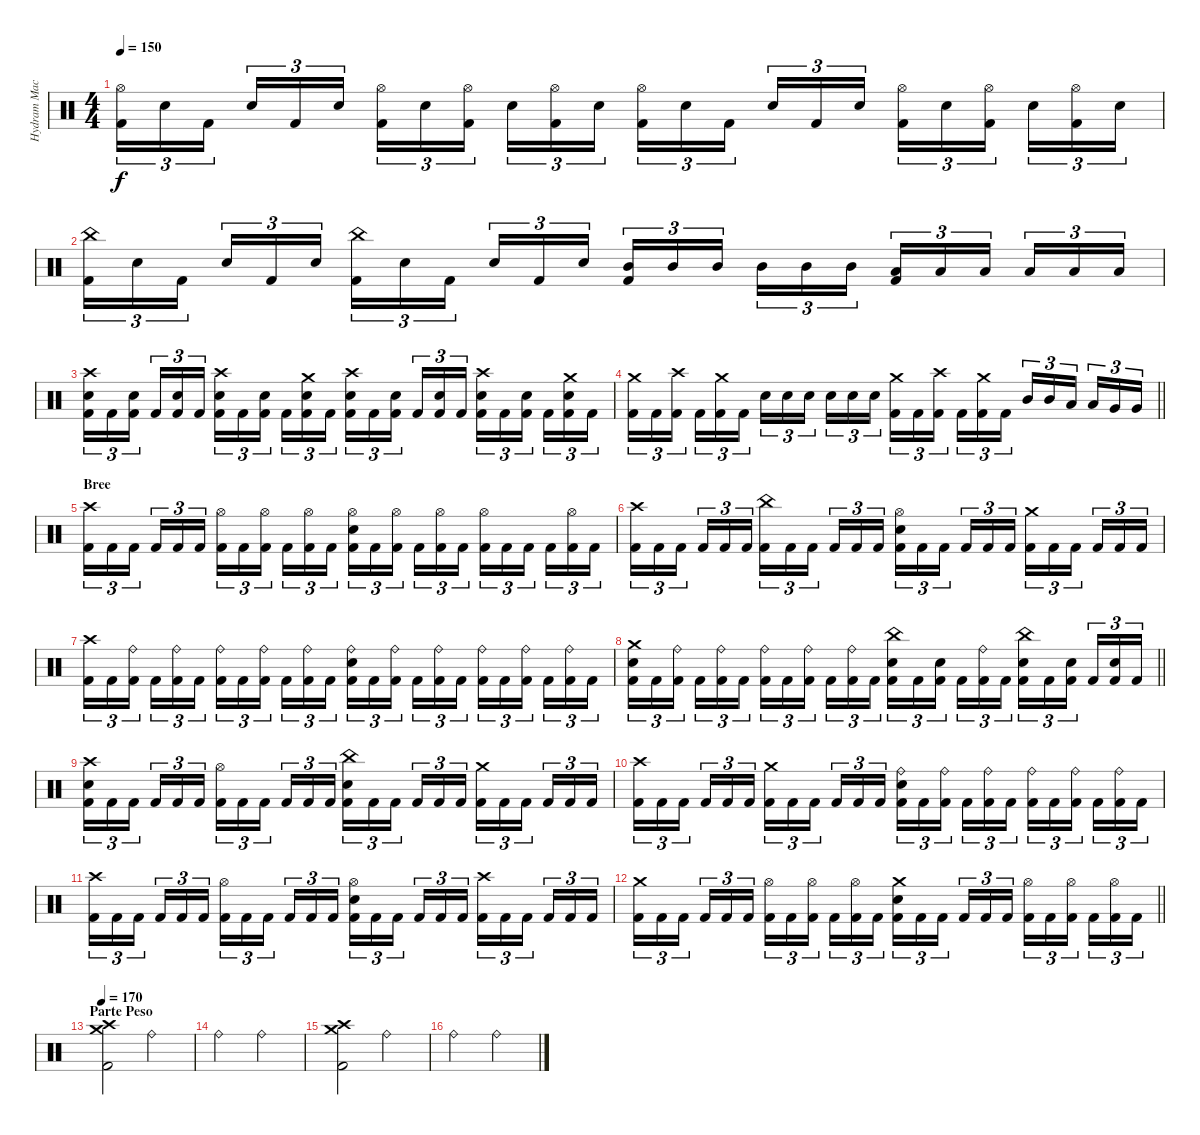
\track ("Hydram Machine" "Hydram Mac") {instrument percussion}
\staff {score}
\articulation defaults
\ts (4 4)
\tempo 150
\clef neutral
\ks c
("Hi-Hat (open)" "Kick (hit) 2").16{tu (3 2) dy f} "Electric Snare (hit)".16{tu (3 2)} "Kick (hit) 2".16{tu (3 2) beam splitsecondary} "Electric Snare (hit)".16{tu (3 2)} "Kick (hit) 2".16{tu (3 2)} "Electric Snare (hit)".16{tu (3 2)} ("Hi-Hat (open)" "Kick (hit) 2").16{tu (3 2)} "Electric Snare (hit)".16{tu (3 2)} ("Hi-Hat (open)" "Kick (hit) 2").16{tu (3 2) beam splitsecondary} "Electric Snare (hit)".16{tu (3 2)} ("Hi-Hat (open)" "Kick (hit) 2").16{tu (3 2)} "Electric Snare (hit)".16{tu (3 2)} ("Hi-Hat (open)" "Kick (hit) 2").16{tu (3 2)} "Electric Snare (hit)".16{tu (3 2)} "Kick (hit) 2".16{tu (3 2) beam splitsecondary} "Electric Snare (hit)".16{tu (3 2)} "Kick (hit) 2".16{tu (3 2)} "Electric Snare (hit)".16{tu (3 2)} ("Hi-Hat (open)" "Kick (hit) 2").16{tu (3 2)} "Electric Snare (hit)".16{tu (3 2)} ("Hi-Hat (open)" "Kick (hit) 2").16{tu (3 2) beam splitsecondary} "Electric Snare (hit)".16{tu (3 2)} ("Hi-Hat (open)" "Kick (hit) 2").16{tu (3 2)} "Electric Snare (hit)".16{tu (3 2)} |
("China (hit)" "Kick (hit) 2").16{tu (3 2)} "Electric Snare (hit)".16{tu (3 2)} "Kick (hit) 2".16{tu (3 2) beam splitsecondary} "Electric Snare (hit)".16{tu (3 2)} "Kick (hit) 2".16{tu (3 2)} "Electric Snare (hit)".16{tu (3 2)} ("China (hit)" "Kick (hit) 2").16{tu (3 2)} "Electric Snare (hit)".16{tu (3 2)} "Kick (hit) 2".16{tu (3 2) beam splitsecondary} "Electric Snare (hit)".16{tu (3 2)} "Kick (hit) 2".16{tu (3 2)} "Electric Snare (hit)".16{tu (3 2)} ("Mid Tom (hit)" "Kick (hit) 2").16{tu (3 2)} "Mid Tom (hit)".16{tu (3 2)} "Mid Tom (hit)".16{tu (3 2) beam splitsecondary} "Mid Tom (hit)".16{tu (3 2)} "Mid Tom (hit)".16{tu (3 2)} "Mid Tom (hit)".16{tu (3 2)} ("Low Tom (hit)" "Kick (hit) 2").16{tu (3 2)} "Low Tom (hit)".16{tu (3 2)} "Low Tom (hit)".16{tu (3 2) beam splitsecondary} "Low Tom (hit)".16{tu (3 2)} "Low Tom (hit)".16{tu (3 2)} "Low Tom (hit)".16{tu (3 2)} |
("Crash high (hit)" "Electric Snare (hit)" "Kick (hit) 2").16{tu (3 2)} "Kick (hit) 2".16{tu (3 2)} ("Electric Snare (hit)" "Kick (hit) 2").16{tu (3 2) beam splitsecondary} "Kick (hit) 2".16{tu (3 2)} ("Electric Snare (hit)" "Kick (hit) 2").16{tu (3 2)} "Kick (hit) 2".16{tu (3 2)} ("Crash high (hit)" "Electric Snare (hit)" "Kick (hit) 2").16{tu (3 2)} "Kick (hit) 2".16{tu (3 2)} ("Electric Snare (hit)" "Kick (hit) 2").16{tu (3 2) beam splitsecondary} "Kick (hit) 2".16{tu (3 2)} ("Crash medium (hit)" "Electric Snare (hit)" "Kick (hit) 2").16{tu (3 2)} "Kick (hit) 2".16{tu (3 2)} ("Crash high (hit)" "Electric Snare (hit)" "Kick (hit) 2").16{tu (3 2)} "Kick (hit) 2".16{tu (3 2)} ("Electric Snare (hit)" "Kick (hit) 2").16{tu (3 2) beam splitsecondary} "Kick (hit) 2".16{tu (3 2)} ("Electric Snare (hit)" "Kick (hit) 2").16{tu (3 2)} "Kick (hit) 2".16{tu (3 2)} ("Crash high (hit)" "Electric Snare (hit)" "Kick (hit) 2").16{tu (3 2)} "Kick (hit) 2".16{tu (3 2)} ("Electric Snare (hit)" "Kick (hit) 2").16{tu (3 2) beam splitsecondary} "Kick (hit) 2".16{tu (3 2)} ("Crash medium (hit)" "Electric Snare (hit)" "Kick (hit) 2").16{tu (3 2)} "Kick (hit) 2".16{tu (3 2)} |
\barLineRight lightlight
("Crash medium (hit)" "Kick (hit) 2").16{tu (3 2)} "Kick (hit) 2".16{tu (3 2)} ("Crash high (hit)" "Kick (hit) 2").16{tu (3 2) beam splitsecondary} "Kick (hit) 2".16{tu (3 2)} ("Crash medium (hit)" "Kick (hit) 2").16{tu (3 2)} "Kick (hit) 2".16{tu (3 2)} "Electric Snare (hit)".16{tu (3 2)} "Electric Snare (hit)".16{tu (3 2)} "Electric Snare (hit)".16{tu (3 2) beam splitsecondary} "Electric Snare (hit)".16{tu (3 2)} "Electric Snare (hit)".16{tu (3 2)} "Electric Snare (hit)".16{tu (3 2)} ("Crash medium (hit)" "Kick (hit) 2").16{tu (3 2)} "Kick (hit) 2".16{tu (3 2)} ("Crash high (hit)" "Kick (hit) 2").16{tu (3 2) beam splitsecondary} "Kick (hit) 2".16{tu (3 2)} ("Crash medium (hit)" "Kick (hit) 2").16{tu (3 2)} "Kick (hit) 2".16{tu (3 2)} "Mid Tom (hit)".16{tu (3 2)} "Mid Tom (hit)".16{tu (3 2)} "Low Tom (hit)".16{tu (3 2) beam splitsecondary} "Low Tom (hit)".16{tu (3 2)} "Very Low Tom (hit)".16{tu (3 2)} "Very Low Tom (hit)".16{tu (3 2)} |
\section ("" "Bree")
("Crash high (hit)" "Kick (hit) 2").16{tu (3 2)} "Kick (hit) 2".16{tu (3 2)} "Kick (hit) 2".16{tu (3 2) beam splitsecondary} "Kick (hit) 2".16{tu (3 2)} "Kick (hit) 2".16{tu (3 2)} "Kick (hit) 2".16{tu (3 2)} ("Hi-Hat (open)" "Kick (hit) 2").16{tu (3 2)} "Kick (hit) 2".16{tu (3 2)} ("Hi-Hat (open)" "Kick (hit) 2").16{tu (3 2) beam splitsecondary} "Kick (hit) 2".16{tu (3 2)} ("Hi-Hat (open)" "Kick (hit) 2").16{tu (3 2)} "Kick (hit) 2".16{tu (3 2)} ("Hi-Hat (open)" "Electric Snare (hit)" "Kick (hit) 2").16{tu (3 2)} "Kick (hit) 2".16{tu (3 2)} ("Hi-Hat (open)" "Kick (hit) 2").16{tu (3 2) beam splitsecondary} "Kick (hit) 2".16{tu (3 2)} ("Hi-Hat (open)" "Kick (hit) 2").16{tu (3 2)} "Kick (hit) 2".16{tu (3 2)} ("Hi-Hat (open)" "Kick (hit) 2").16{tu (3 2)} "Kick (hit) 2".16{tu (3 2)} "Kick (hit) 2".16{tu (3 2) beam splitsecondary} "Kick (hit) 2".16{tu (3 2)} ("Hi-Hat (open)" "Kick (hit) 2").16{tu (3 2)} "Kick (hit) 2".16{tu (3 2)} |
("Crash high (hit)" "Kick (hit) 2").16{tu (3 2)} "Kick (hit) 2".16{tu (3 2)} "Kick (hit) 2".16{tu (3 2) beam splitsecondary} "Kick (hit) 2".16{tu (3 2)} "Kick (hit) 2".16{tu (3 2)} "Kick (hit) 2".16{tu (3 2)} ("China (hit)" "Kick (hit) 2").16{tu (3 2)} "Kick (hit) 2".16{tu (3 2)} "Kick (hit) 2".16{tu (3 2) beam splitsecondary} "Kick (hit) 2".16{tu (3 2)} "Kick (hit) 2".16{tu (3 2)} "Kick (hit) 2".16{tu (3 2)} ("Hi-Hat (open)" "Electric Snare (hit)" "Kick (hit) 2").16{tu (3 2)} "Kick (hit) 2".16{tu (3 2)} "Kick (hit) 2".16{tu (3 2) beam splitsecondary} "Kick (hit) 2".16{tu (3 2)} "Kick (hit) 2".16{tu (3 2)} "Kick (hit) 2".16{tu (3 2)} ("Crash medium (hit)" "Kick (hit) 2").16{tu (3 2)} "Kick (hit) 2".16{tu (3 2)} "Kick (hit) 2".16{tu (3 2) beam splitsecondary} "Kick (hit) 2".16{tu (3 2)} "Kick (hit) 2".16{tu (3 2)} "Kick (hit) 2".16{tu (3 2)} |
("Crash high (hit)" "Kick (hit) 2").16{tu (3 2)} "Kick (hit) 2".16{tu (3 2)} ("Ride (bell)" "Kick (hit) 2").16{tu (3 2) beam splitsecondary} "Kick (hit) 2".16{tu (3 2)} ("Ride (bell)" "Kick (hit) 2").16{tu (3 2)} "Kick (hit) 2".16{tu (3 2)} ("Ride (bell)" "Kick (hit) 2").16{tu (3 2)} "Kick (hit) 2".16{tu (3 2)} ("Ride (bell)" "Kick (hit) 2").16{tu (3 2) beam splitsecondary} "Kick (hit) 2".16{tu (3 2)} ("Ride (bell)" "Kick (hit) 2").16{tu (3 2)} "Kick (hit) 2".16{tu (3 2)} ("Ride (bell)" "Electric Snare (hit)" "Kick (hit) 2").16{tu (3 2)} "Kick (hit) 2".16{tu (3 2)} ("Ride (bell)" "Kick (hit) 2").16{tu (3 2) beam splitsecondary} "Kick (hit) 2".16{tu (3 2)} ("Ride (bell)" "Kick (hit) 2").16{tu (3 2)} "Kick (hit) 2".16{tu (3 2)} ("Ride (bell)" "Kick (hit) 2").16{tu (3 2)} "Kick (hit) 2".16{tu (3 2)} ("Ride (bell)" "Kick (hit) 2").16{tu (3 2) beam splitsecondary} "Kick (hit) 2".16{tu (3 2)} ("Ride (bell)" "Kick (hit) 2").16{tu (3 2)} "Kick (hit) 2".16{tu (3 2)} |
\barLineRight lightlight
("Crash medium (hit)" "Electric Snare (hit)" "Kick (hit) 2").16{tu (3 2)} "Kick (hit) 2".16{tu (3 2)} ("Ride (bell)" "Kick (hit) 2").16{tu (3 2) beam splitsecondary} "Kick (hit) 2".16{tu (3 2)} ("Ride (bell)" "Kick (hit) 2").16{tu (3 2)} "Kick (hit) 2".16{tu (3 2)} ("Ride (bell)" "Kick (hit) 2").16{tu (3 2)} "Kick (hit) 2".16{tu (3 2)} ("Ride (bell)" "Kick (hit) 2").16{tu (3 2) beam splitsecondary} "Kick (hit) 2".16{tu (3 2)} ("Ride (bell)" "Kick (hit) 2").16{tu (3 2)} "Kick (hit) 2".16{tu (3 2)} ("China (hit)" "Electric Snare (hit)" "Kick (hit) 2").16{tu (3 2)} "Kick (hit) 2".16{tu (3 2)} ("Electric Snare (hit)" "Kick (hit) 2").16{tu (3 2) beam splitsecondary} "Kick (hit) 2".16{tu (3 2)} ("Ride (bell)" "Kick (hit) 2").16{tu (3 2)} "Kick (hit) 2".16{tu (3 2)} ("China (hit)" "Electric Snare (hit)" "Kick (hit) 2").16{tu (3 2)} "Kick (hit) 2".16{tu (3 2)} ("Electric Snare (hit)" "Kick (hit) 2").16{tu (3 2) beam splitsecondary} "Kick (hit) 2".16{tu (3 2)} ("Electric Snare (hit)" "Kick (hit) 2").16{tu (3 2)} "Kick (hit) 2".16{tu (3 2)} |
("Crash high (hit)" "Electric Snare (hit)" "Kick (hit) 2").16{tu (3 2)} "Kick (hit) 2".16{tu (3 2)} "Kick (hit) 2".16{tu (3 2) beam splitsecondary} "Kick (hit) 2".16{tu (3 2)} "Kick (hit) 2".16{tu (3 2)} "Kick (hit) 2".16{tu (3 2)} ("Hi-Hat (open)" "Kick (hit) 2").16{tu (3 2)} "Kick (hit) 2".16{tu (3 2)} "Kick (hit) 2".16{tu (3 2) beam splitsecondary} "Kick (hit) 2".16{tu (3 2)} "Kick (hit) 2".16{tu (3 2)} "Kick (hit) 2".16{tu (3 2)} ("China (hit)" "Electric Snare (hit)" "Kick (hit) 2").16{tu (3 2)} "Kick (hit) 2".16{tu (3 2)} "Kick (hit) 2".16{tu (3 2) beam splitsecondary} "Kick (hit) 2".16{tu (3 2)} "Kick (hit) 2".16{tu (3 2)} "Kick (hit) 2".16{tu (3 2)} ("Crash medium (hit)" "Kick (hit) 2").16{tu (3 2)} "Kick (hit) 2".16{tu (3 2)} "Kick (hit) 2".16{tu (3 2) beam splitsecondary} "Kick (hit) 2".16{tu (3 2)} "Kick (hit) 2".16{tu (3 2)} "Kick (hit) 2".16{tu (3 2)} |
("Crash high (hit)" "Kick (hit) 2").16{tu (3 2)} "Kick (hit) 2".16{tu (3 2)} "Kick (hit) 2".16{tu (3 2) beam splitsecondary} "Kick (hit) 2".16{tu (3 2)} "Kick (hit) 2".16{tu (3 2)} "Kick (hit) 2".16{tu (3 2)} ("Crash medium (hit)" "Kick (hit) 2").16{tu (3 2)} "Kick (hit) 2".16{tu (3 2)} "Kick (hit) 2".16{tu (3 2) beam splitsecondary} "Kick (hit) 2".16{tu (3 2)} "Kick (hit) 2".16{tu (3 2)} "Kick (hit) 2".16{tu (3 2)} ("Ride (bell)" "Electric Snare (hit)" "Kick (hit) 2").16{tu (3 2)} "Kick (hit) 2".16{tu (3 2)} ("Ride (bell)" "Kick (hit) 2").16{tu (3 2) beam splitsecondary} "Kick (hit) 2".16{tu (3 2)} ("Ride (bell)" "Kick (hit) 2").16{tu (3 2)} "Kick (hit) 2".16{tu (3 2)} ("Ride (bell)" "Kick (hit) 2").16{tu (3 2)} "Kick (hit) 2".16{tu (3 2)} ("Ride (bell)" "Kick (hit) 2").16{tu (3 2) beam splitsecondary} "Kick (hit) 2".16{tu (3 2)} ("Ride (bell)" "Kick (hit) 2").16{tu (3 2)} "Kick (hit) 2".16{tu (3 2)} |
("Crash high (hit)" "Kick (hit) 2").16{tu (3 2)} "Kick (hit) 2".16{tu (3 2)} "Kick (hit) 2".16{tu (3 2) beam splitsecondary} "Kick (hit) 2".16{tu (3 2)} "Kick (hit) 2".16{tu (3 2)} "Kick (hit) 2".16{tu (3 2)} ("Hi-Hat (open)" "Kick (hit) 2").16{tu (3 2)} "Kick (hit) 2".16{tu (3 2)} "Kick (hit) 2".16{tu (3 2) beam splitsecondary} "Kick (hit) 2".16{tu (3 2)} "Kick (hit) 2".16{tu (3 2)} "Kick (hit) 2".16{tu (3 2)} ("Hi-Hat (open)" "Electric Snare (hit)" "Kick (hit) 2").16{tu (3 2)} "Kick (hit) 2".16{tu (3 2)} "Kick (hit) 2".16{tu (3 2) beam splitsecondary} "Kick (hit) 2".16{tu (3 2)} "Kick (hit) 2".16{tu (3 2)} "Kick (hit) 2".16{tu (3 2)} ("Crash high (hit)" "Kick (hit) 2").16{tu (3 2)} "Kick (hit) 2".16{tu (3 2)} "Kick (hit) 2".16{tu (3 2) beam splitsecondary} "Kick (hit) 2".16{tu (3 2)} "Kick (hit) 2".16{tu (3 2)} "Kick (hit) 2".16{tu (3 2)} |
\barLineRight lightlight
("Crash medium (hit)" "Kick (hit) 2").16{tu (3 2)} "Kick (hit) 2".16{tu (3 2)} "Kick (hit) 2".16{tu (3 2) beam splitsecondary} "Kick (hit) 2".16{tu (3 2)} "Kick (hit) 2".16{tu (3 2)} "Kick (hit) 2".16{tu (3 2)} ("Hi-Hat (open)" "Kick (hit) 2").16{tu (3 2)} "Kick (hit) 2".16{tu (3 2)} ("Hi-Hat (open)" "Kick (hit) 2").16{tu (3 2) beam splitsecondary} "Kick (hit) 2".16{tu (3 2)} ("Hi-Hat (open)" "Kick (hit) 2").16{tu (3 2)} "Kick (hit) 2".16{tu (3 2)} ("Crash medium (hit)" "Electric Snare (hit)" "Kick (hit) 2").16{tu (3 2)} "Kick (hit) 2".16{tu (3 2)} "Kick (hit) 2".16{tu (3 2) beam splitsecondary} "Kick (hit) 2".16{tu (3 2)} "Kick (hit) 2".16{tu (3 2)} "Kick (hit) 2".16{tu (3 2)} ("Hi-Hat (open)" "Kick (hit) 2").16{tu (3 2)} "Kick (hit) 2".16{tu (3 2)} ("Hi-Hat (open)" "Kick (hit) 2").16{tu (3 2) beam splitsecondary} "Kick (hit) 2".16{tu (3 2)} ("Hi-Hat (open)" "Kick (hit) 2").16{tu (3 2)} "Kick (hit) 2".16{tu (3 2)} |
\section ("" "Parte Peso")
\tempo 170
("Crash medium (hit)" "Crash high (hit)" "Kick (hit) 2").2 "Ride (bell)".2 |
"Ride (bell)".2 "Ride (bell)".2 |
("Crash medium (hit)" "Crash high (hit)" "Kick (hit) 2").2 "Ride (bell)".2 |
"Ride (bell)".2 "Ride (bell)".2
